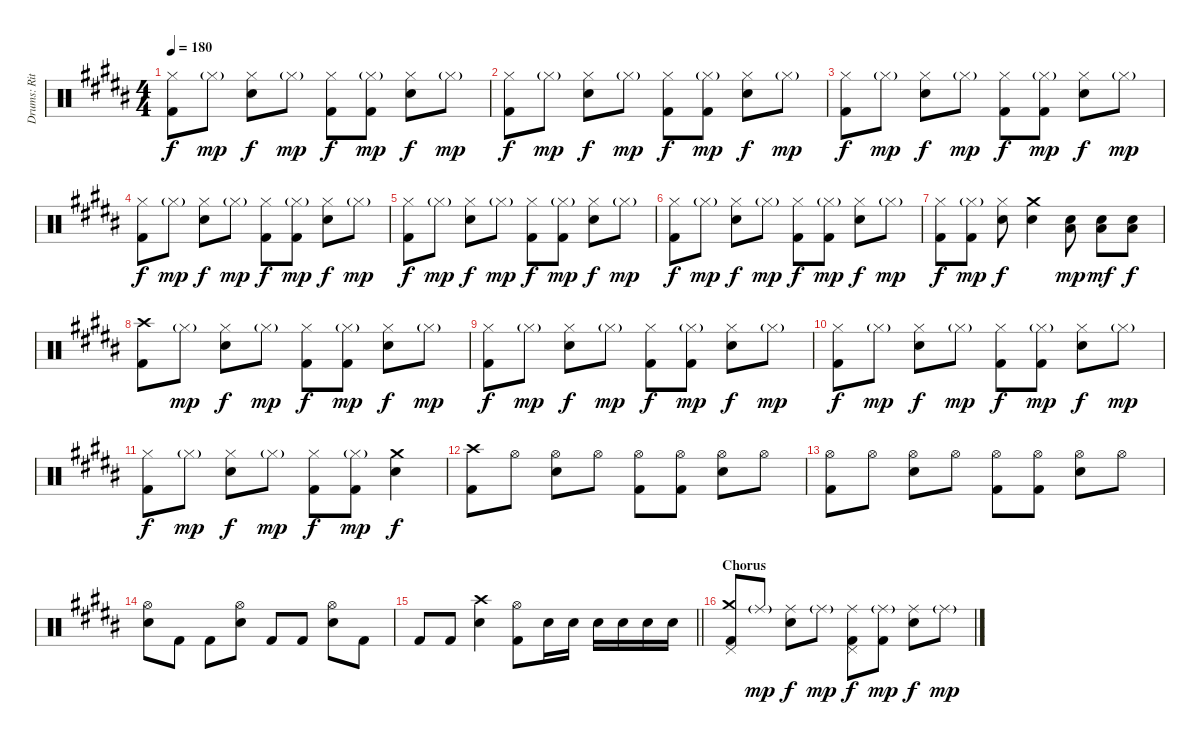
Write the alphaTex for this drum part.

\track ("Drums: Ritsu " "Drums: Rit") {instrument percussion}
\staff {score}
\articulation defaults
\ts (4 4)
\tempo 180
\clef neutral
\ks b
("Hi-Hat (closed)" "Kick (hit) 2").8{dy f} "Hi-Hat (closed)"{g}.8{dy mp} ("Hi-Hat (closed)" "Electric Snare (hit)").8{dy f} "Hi-Hat (closed)"{g}.8{dy mp} ("Hi-Hat (closed)" "Kick (hit) 2").8{dy f} ("Hi-Hat (closed)"{g} "Kick (hit) 2").8{dy mp} ("Hi-Hat (closed)" "Electric Snare (hit)").8{dy f} "Hi-Hat (closed)"{g}.8{dy mp} |
("Hi-Hat (closed)" "Kick (hit) 2").8{dy f} "Hi-Hat (closed)"{g}.8{dy mp} ("Hi-Hat (closed)" "Electric Snare (hit)").8{dy f} "Hi-Hat (closed)"{g}.8{dy mp} ("Hi-Hat (closed)" "Kick (hit) 2").8{dy f} ("Hi-Hat (closed)"{g} "Kick (hit) 2").8{dy mp} ("Hi-Hat (closed)" "Electric Snare (hit)").8{dy f} "Hi-Hat (closed)"{g}.8{dy mp} |
("Hi-Hat (closed)" "Kick (hit) 2").8{dy f} "Hi-Hat (closed)"{g}.8{dy mp} ("Hi-Hat (closed)" "Electric Snare (hit)").8{dy f} "Hi-Hat (closed)"{g}.8{dy mp} ("Hi-Hat (closed)" "Kick (hit) 2").8{dy f} ("Hi-Hat (closed)"{g} "Kick (hit) 2").8{dy mp} ("Hi-Hat (closed)" "Electric Snare (hit)").8{dy f} "Hi-Hat (closed)"{g}.8{dy mp} |
("Hi-Hat (closed)" "Kick (hit) 2").8{dy f} "Hi-Hat (closed)"{g}.8{dy mp} ("Hi-Hat (closed)" "Electric Snare (hit)").8{dy f} "Hi-Hat (closed)"{g}.8{dy mp} ("Hi-Hat (closed)" "Kick (hit) 2").8{dy f} ("Hi-Hat (closed)"{g} "Kick (hit) 2").8{dy mp} ("Hi-Hat (closed)" "Electric Snare (hit)").8{dy f} "Hi-Hat (closed)"{g}.8{dy mp} |
("Hi-Hat (closed)" "Kick (hit) 2").8{dy f} "Hi-Hat (closed)"{g}.8{dy mp} ("Hi-Hat (closed)" "Electric Snare (hit)").8{dy f} "Hi-Hat (closed)"{g}.8{dy mp} ("Hi-Hat (closed)" "Kick (hit) 2").8{dy f} ("Hi-Hat (closed)"{g} "Kick (hit) 2").8{dy mp} ("Hi-Hat (closed)" "Electric Snare (hit)").8{dy f} "Hi-Hat (closed)"{g}.8{dy mp} |
("Hi-Hat (closed)" "Kick (hit) 2").8{dy f} "Hi-Hat (closed)"{g}.8{dy mp} ("Hi-Hat (closed)" "Electric Snare (hit)").8{dy f} "Hi-Hat (closed)"{g}.8{dy mp} ("Hi-Hat (closed)" "Kick (hit) 2").8{dy f} ("Hi-Hat (closed)"{g} "Kick (hit) 2").8{dy mp} ("Hi-Hat (closed)" "Electric Snare (hit)").8{dy f} "Hi-Hat (closed)"{g}.8{dy mp} |
("Hi-Hat (closed)" "Kick (hit) 2").8{dy f} ("Hi-Hat (closed)"{g} "Kick (hit) 2").8{dy mp} ("Hi-Hat (closed)" "Electric Snare (hit)").8{dy f} ("Crash medium (hit)" "Electric Snare (hit)").4 ("Electric Snare (hit)" "Low Floor Tom (hit)").8{dy mp} ("Electric Snare (hit)" "Low Floor Tom (hit)").8{dy mf} ("Electric Snare (hit)" "Low Floor Tom (hit)").8{dy f} |
("Crash high (hit)" "Kick (hit) 2").8 "Hi-Hat (closed)"{g}.8{dy mp} ("Hi-Hat (closed)" "Electric Snare (hit)").8{dy f} "Hi-Hat (closed)"{g}.8{dy mp} ("Hi-Hat (closed)" "Kick (hit) 2").8{dy f} ("Hi-Hat (closed)"{g} "Kick (hit) 2").8{dy mp} ("Hi-Hat (closed)" "Electric Snare (hit)").8{dy f} "Hi-Hat (closed)"{g}.8{dy mp} |
("Hi-Hat (closed)" "Kick (hit) 2").8{dy f} "Hi-Hat (closed)"{g}.8{dy mp} ("Hi-Hat (closed)" "Electric Snare (hit)").8{dy f} "Hi-Hat (closed)"{g}.8{dy mp} ("Hi-Hat (closed)" "Kick (hit) 2").8{dy f} ("Hi-Hat (closed)"{g} "Kick (hit) 2").8{dy mp} ("Hi-Hat (closed)" "Electric Snare (hit)").8{dy f} "Hi-Hat (closed)"{g}.8{dy mp} |
("Hi-Hat (closed)" "Kick (hit) 2").8{dy f} "Hi-Hat (closed)"{g}.8{dy mp} ("Hi-Hat (closed)" "Electric Snare (hit)").8{dy f} "Hi-Hat (closed)"{g}.8{dy mp} ("Hi-Hat (closed)" "Kick (hit) 2").8{dy f} ("Hi-Hat (closed)"{g} "Kick (hit) 2").8{dy mp} ("Hi-Hat (closed)" "Electric Snare (hit)").8{dy f} "Hi-Hat (closed)"{g}.8{dy mp} |
("Hi-Hat (closed)" "Kick (hit) 2").8{dy f} "Hi-Hat (closed)"{g}.8{dy mp} ("Hi-Hat (closed)" "Electric Snare (hit)").8{dy f} "Hi-Hat (closed)"{g}.8{dy mp} ("Hi-Hat (closed)" "Kick (hit) 2").8{dy f} ("Hi-Hat (closed)"{g} "Kick (hit) 2").8{dy mp} ("Crash medium (hit)" "Electric Snare (hit)").4{dy f} |
("Crash high (hit)" "Kick (hit) 2").8 "Hi-Hat (open)".8 ("Hi-Hat (open)" "Electric Snare (hit)").8 "Hi-Hat (open)".8 ("Hi-Hat (open)" "Kick (hit) 2").8 ("Hi-Hat (open)" "Kick (hit) 2").8 ("Hi-Hat (open)" "Electric Snare (hit)").8 "Hi-Hat (open)".8 |
("Hi-Hat (open)" "Kick (hit) 2").8 "Hi-Hat (open)".8 ("Hi-Hat (open)" "Electric Snare (hit)").8 "Hi-Hat (open)".8 ("Hi-Hat (open)" "Kick (hit) 2").8 ("Hi-Hat (open)" "Kick (hit) 2").8 ("Hi-Hat (open)" "Electric Snare (hit)").8 "Hi-Hat (open)".8 |
("Hi-Hat (open)" "Electric Snare (hit)").8 "Kick (hit) 2".8 "Kick (hit) 2".8 ("Hi-Hat (open)" "Electric Snare (hit)").8 "Kick (hit) 2".8 "Kick (hit) 2".8 ("Hi-Hat (open)" "Electric Snare (hit)").8 "Kick (hit) 2".8 |
\barLineRight lightlight "Kick (hit) 2".8 "Kick (hit) 2".8
("Crash high (hit)" "Electric Snare (hit)").4 ("Hi-Hat (open)" "Kick (hit) 2").8 "Electric Snare (hit)".16 "Electric Snare (hit)".16 "Electric Snare (hit)".16 "Electric Snare (hit)".16 "Electric Snare (hit)".16 "Electric Snare (hit)".16 |
\section ("" "Chorus")
("Crash medium (hit)" "Pedal Hi-Hat (hit)" "Kick (hit) 2").8 "Ride (middle)"{g}.8{dy mp} ("Ride (middle)" "Electric Snare (hit)").8{dy f} "Ride (middle)"{g}.8{dy mp} ("Ride (middle)" "Pedal Hi-Hat (hit)" "Kick (hit) 2").8{dy f} ("Ride (middle)"{g} "Kick (hit) 2").8{dy mp} ("Ride (middle)" "Electric Snare (hit)").8{dy f} "Ride (middle)"{g}.8{dy mp}
